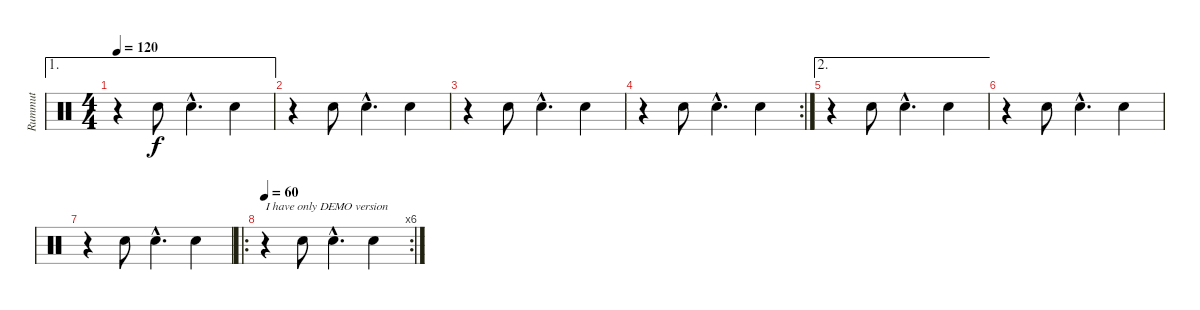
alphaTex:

\track ("Rummut" "Rummut") {instrument percussion}
\staff {score}
\articulation defaults
\ae 1
\ts (4 4)
\tempo 120
\clef neutral
\ks c
r.4{dy f} "Snare (hit) 2".8 "Snare (hit) 2"{hac}.4{d} "Snare (hit) 2".4 |
r.4 "Snare (hit) 2".8 "Snare (hit) 2"{hac}.4{d} "Snare (hit) 2".4 |
r.4 "Snare (hit) 2".8 "Snare (hit) 2"{hac}.4{d} "Snare (hit) 2".4 |
\rc 2
r.4 "Snare (hit) 2".8 "Snare (hit) 2"{hac}.4{d} "Snare (hit) 2".4 |
\ae 2
r.4 "Snare (hit) 2".8 "Snare (hit) 2"{hac}.4{d} "Snare (hit) 2".4 |
r.4 "Snare (hit) 2".8 "Snare (hit) 2"{hac}.4{d} "Snare (hit) 2".4 |
r.4 "Snare (hit) 2".8 "Snare (hit) 2"{hac}.4{d} "Snare (hit) 2".4 |
\ro
\rc 6
\tempo 60
r.4{txt "I have only DEMO version"} "Snare (hit) 2".8 "Snare (hit) 2"{hac}.4{d} "Snare (hit) 2".4
